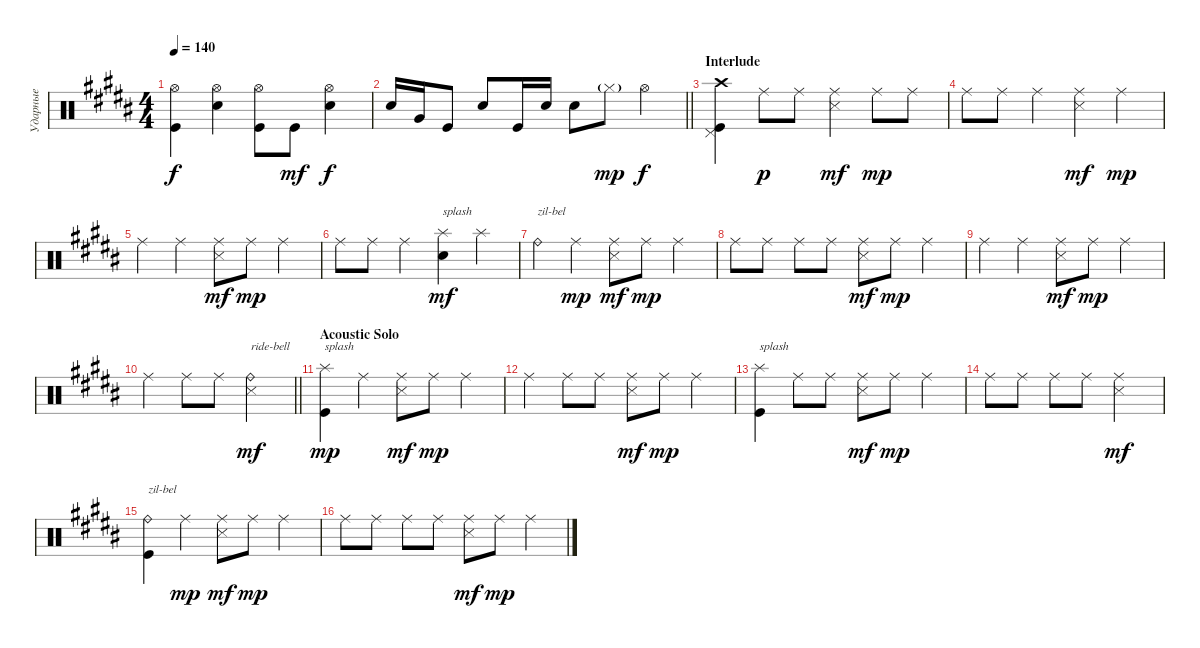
\track ("Ударные" "Ударные") {instrument percussion}
\staff {score}
\articulation defaults
\ts (4 4)
\tempo 140
\clef neutral
\ks g#minor
("Kick (hit)" "Hi-Hat (open)").4{dy f} ("Hi-Hat (open)" "Snare (hit) 2").4 ("Hi-Hat (open)" "Kick (hit)").8 "Kick (hit)".8{dy mf} ("Hi-Hat (open)" "Snare (hit) 2").4{dy f} |
\barLineRight lightlight "Snare (hit) 2".16 "Very Low Tom (hit)".16 "Kick (hit)".8 "Snare (hit) 2".8 "Kick (hit)".16 "Snare (hit) 2".16 "Snare (hit) 2".8 "Hi-Hat (closed)"{g}.8{dy mp} "Hi-Hat (open)".4{dy f}
|
\section ("" "Interlude")
("Kick (hit)" "Pedal Hi-Hat (hit)" "Crash high (hit)").4 "Ride (middle)".8{dy p} "Ride (middle)".8 ("Ride (middle)" "Snare (side stick) 3").4{dy mf} "Ride (middle)".8{dy mp} "Ride (middle)".8 |
"Ride (middle)".8 "Ride (middle)".8 "Ride (middle)".4 ("Ride (middle)" "Snare (side stick) 3").4{dy mf} "Ride (middle)".4{dy mp} |
"Ride (middle)".4 "Ride (middle)".4 ("Ride (middle)" "Snare (side stick) 3").8{dy mf} "Ride (middle)".8{dy mp} "Ride (middle)".4 |
"Ride (middle)".8 "Ride (middle)".8 "Ride (middle)".4 ("Splash (hit)" "Snare (hit) 2").4{txt "splash" dy mf} "Splash (hit)".4 |
"Ride (bell)".4{txt "zil-bel"} "Ride (middle)".4{dy mp} ("Ride (middle)" "Snare (side stick) 3").8{dy mf} "Ride (middle)".8{dy mp} "Ride (middle)".4 |
"Ride (middle)".8 "Ride (middle)".8 "Ride (middle)".8 "Ride (middle)".8 ("Ride (middle)" "Snare (side stick) 3").8{dy mf} "Ride (middle)".8{dy mp} "Ride (middle)".4 |
"Ride (middle)".4 "Ride (middle)".4 ("Ride (middle)" "Snare (side stick) 3").8{dy mf} "Ride (middle)".8{dy mp} "Ride (middle)".4 |
\barLineRight lightlight "Ride (middle)".4 "Ride (middle)".8 "Ride (middle)".8
("Ride (bell)" "Snare (side stick) 3").2{txt "ride-bell" dy mf} |
\section ("" "Acoustic Solo")
("Splash (hit)" "Kick (hit)").4{txt "splash" dy mp} "Ride (middle)".4 ("Ride (middle)" "Snare (side stick) 3").8{dy mf} "Ride (middle)".8{dy mp} "Ride (middle)".4 |
"Ride (middle)".4 "Ride (middle)".8 "Ride (middle)".8 ("Ride (middle)" "Snare (side stick) 3").8{dy mf} "Ride (middle)".8{dy mp} "Ride (middle)".4 |
("Splash (hit)" "Kick (hit)").4{txt "splash"} "Ride (middle)".8 "Ride (middle)".8 ("Ride (middle)" "Snare (side stick) 3").8{dy mf} "Ride (middle)".8{dy mp} "Ride (middle)".4 |
"Ride (middle)".8 "Ride (middle)".8 "Ride (middle)".8 "Ride (middle)".8 ("Ride (middle)" "Snare (side stick) 3").2{dy mf} |
("Ride (bell)" "Kick (hit)").4{txt "zil-bel"} "Ride (middle)".4{dy mp} ("Ride (middle)" "Snare (side stick) 3").8{dy mf} "Ride (middle)".8{dy mp} "Ride (middle)".4 |
"Ride (middle)".8 "Ride (middle)".8 "Ride (middle)".8 "Ride (middle)".8 ("Ride (middle)" "Snare (side stick) 3").8{dy mf} "Ride (middle)".8{dy mp} "Ride (middle)".4
